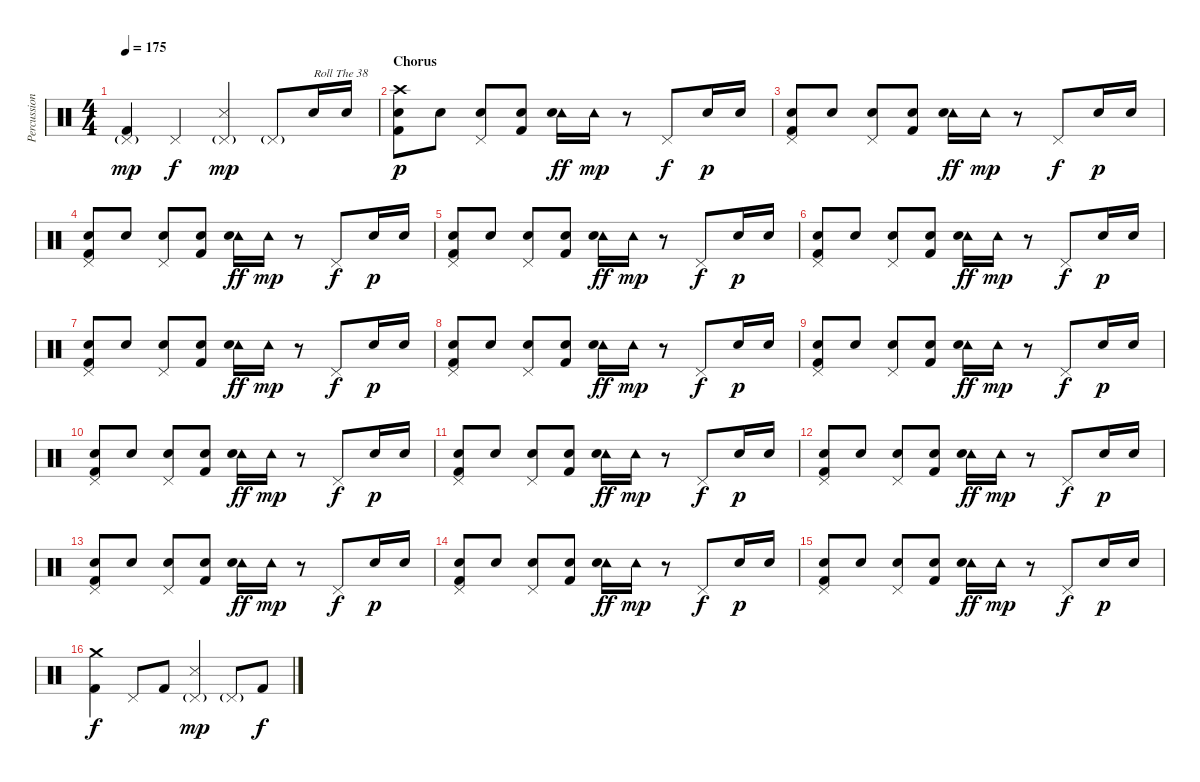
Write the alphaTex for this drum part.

\track ("Percussion" "Percussion") {instrument percussion}
\staff {score}
\articulation defaults
\ts (4 4)
\tempo 175
\clef neutral
\ks c
("Pedal Hi-Hat (hit)"{g} "Kick (hit) 2").4{dy mp} "Pedal Hi-Hat (hit)".4{dy f} ("Pedal Hi-Hat (hit)"{g} "Snare (side stick) 3").4{dy mp} "Pedal Hi-Hat (hit)"{g}.8 "Snare (hit) 2".16{txt "Roll The 38"} "Snare (hit) 2".16 |
\section ("" "Chorus")
("Crash high (hit)" "Snare (hit) 2" "Kick (hit) 2").8{dy p} "Snare (hit) 2".8 ("Pedal Hi-Hat (hit)" "Snare (hit) 2").8 ("Snare (hit) 2" "Kick (hit) 2").8 ("Tambourine (hit)" "Electric Snare (hit)").16{dy ff} "Tambourine (hit)".16{dy mp} r.8 "Pedal Hi-Hat (hit)".8{dy f} "Snare (hit) 2".16{dy p} "Snare (hit) 2".16 |
("Pedal Hi-Hat (hit)" "Snare (hit) 2" "Kick (hit) 2").8 "Snare (hit) 2".8 ("Pedal Hi-Hat (hit)" "Snare (hit) 2").8 ("Snare (hit) 2" "Kick (hit) 2").8 ("Tambourine (hit)" "Electric Snare (hit)").16{dy ff} "Tambourine (hit)".16{dy mp} r.8 "Pedal Hi-Hat (hit)".8{dy f} "Snare (hit) 2".16{dy p} "Snare (hit) 2".16 |
("Pedal Hi-Hat (hit)" "Snare (hit) 2" "Kick (hit) 2").8 "Snare (hit) 2".8 ("Pedal Hi-Hat (hit)" "Snare (hit) 2").8 ("Snare (hit) 2" "Kick (hit) 2").8 ("Tambourine (hit)" "Electric Snare (hit)").16{dy ff} "Tambourine (hit)".16{dy mp} r.8 "Pedal Hi-Hat (hit)".8{dy f} "Snare (hit) 2".16{dy p} "Snare (hit) 2".16 |
("Pedal Hi-Hat (hit)" "Snare (hit) 2" "Kick (hit) 2").8 "Snare (hit) 2".8 ("Pedal Hi-Hat (hit)" "Snare (hit) 2").8 ("Snare (hit) 2" "Kick (hit) 2").8 ("Tambourine (hit)" "Electric Snare (hit)").16{dy ff} "Tambourine (hit)".16{dy mp} r.8 "Pedal Hi-Hat (hit)".8{dy f} "Snare (hit) 2".16{dy p} "Snare (hit) 2".16 |
("Pedal Hi-Hat (hit)" "Snare (hit) 2" "Kick (hit) 2").8 "Snare (hit) 2".8 ("Pedal Hi-Hat (hit)" "Snare (hit) 2").8 ("Snare (hit) 2" "Kick (hit) 2").8 ("Tambourine (hit)" "Electric Snare (hit)").16{dy ff} "Tambourine (hit)".16{dy mp} r.8 "Pedal Hi-Hat (hit)".8{dy f} "Snare (hit) 2".16{dy p} "Snare (hit) 2".16 |
("Pedal Hi-Hat (hit)" "Snare (hit) 2" "Kick (hit) 2").8 "Snare (hit) 2".8 ("Pedal Hi-Hat (hit)" "Snare (hit) 2").8 ("Snare (hit) 2" "Kick (hit) 2").8 ("Tambourine (hit)" "Electric Snare (hit)").16{dy ff} "Tambourine (hit)".16{dy mp} r.8 "Pedal Hi-Hat (hit)".8{dy f} "Snare (hit) 2".16{dy p} "Snare (hit) 2".16 |
("Pedal Hi-Hat (hit)" "Snare (hit) 2" "Kick (hit) 2").8 "Snare (hit) 2".8 ("Pedal Hi-Hat (hit)" "Snare (hit) 2").8 ("Snare (hit) 2" "Kick (hit) 2").8 ("Tambourine (hit)" "Electric Snare (hit)").16{dy ff} "Tambourine (hit)".16{dy mp} r.8 "Pedal Hi-Hat (hit)".8{dy f} "Snare (hit) 2".16{dy p} "Snare (hit) 2".16 |
("Pedal Hi-Hat (hit)" "Snare (hit) 2" "Kick (hit) 2").8 "Snare (hit) 2".8 ("Pedal Hi-Hat (hit)" "Snare (hit) 2").8 ("Snare (hit) 2" "Kick (hit) 2").8 ("Tambourine (hit)" "Electric Snare (hit)").16{dy ff} "Tambourine (hit)".16{dy mp} r.8 "Pedal Hi-Hat (hit)".8{dy f} "Snare (hit) 2".16{dy p} "Snare (hit) 2".16 |
("Pedal Hi-Hat (hit)" "Snare (hit) 2" "Kick (hit) 2").8 "Snare (hit) 2".8 ("Pedal Hi-Hat (hit)" "Snare (hit) 2").8 ("Snare (hit) 2" "Kick (hit) 2").8 ("Tambourine (hit)" "Electric Snare (hit)").16{dy ff} "Tambourine (hit)".16{dy mp} r.8 "Pedal Hi-Hat (hit)".8{dy f} "Snare (hit) 2".16{dy p} "Snare (hit) 2".16 |
("Pedal Hi-Hat (hit)" "Snare (hit) 2" "Kick (hit) 2").8 "Snare (hit) 2".8 ("Pedal Hi-Hat (hit)" "Snare (hit) 2").8 ("Snare (hit) 2" "Kick (hit) 2").8 ("Tambourine (hit)" "Electric Snare (hit)").16{dy ff} "Tambourine (hit)".16{dy mp} r.8 "Pedal Hi-Hat (hit)".8{dy f} "Snare (hit) 2".16{dy p} "Snare (hit) 2".16 |
("Pedal Hi-Hat (hit)" "Snare (hit) 2" "Kick (hit) 2").8 "Snare (hit) 2".8 ("Pedal Hi-Hat (hit)" "Snare (hit) 2").8 ("Snare (hit) 2" "Kick (hit) 2").8 ("Tambourine (hit)" "Electric Snare (hit)").16{dy ff} "Tambourine (hit)".16{dy mp} r.8 "Pedal Hi-Hat (hit)".8{dy f} "Snare (hit) 2".16{dy p} "Snare (hit) 2".16 |
("Pedal Hi-Hat (hit)" "Snare (hit) 2" "Kick (hit) 2").8 "Snare (hit) 2".8 ("Pedal Hi-Hat (hit)" "Snare (hit) 2").8 ("Snare (hit) 2" "Kick (hit) 2").8 ("Tambourine (hit)" "Electric Snare (hit)").16{dy ff} "Tambourine (hit)".16{dy mp} r.8 "Pedal Hi-Hat (hit)".8{dy f} "Snare (hit) 2".16{dy p} "Snare (hit) 2".16 |
("Pedal Hi-Hat (hit)" "Snare (hit) 2" "Kick (hit) 2").8 "Snare (hit) 2".8 ("Pedal Hi-Hat (hit)" "Snare (hit) 2").8 ("Snare (hit) 2" "Kick (hit) 2").8 ("Tambourine (hit)" "Electric Snare (hit)").16{dy ff} "Tambourine (hit)".16{dy mp} r.8 "Pedal Hi-Hat (hit)".8{dy f} "Snare (hit) 2".16{dy p} "Snare (hit) 2".16 |
("Pedal Hi-Hat (hit)" "Snare (hit) 2" "Kick (hit) 2").8 "Snare (hit) 2".8 ("Pedal Hi-Hat (hit)" "Snare (hit) 2").8 ("Snare (hit) 2" "Kick (hit) 2").8 ("Tambourine (hit)" "Electric Snare (hit)").16{dy ff} "Tambourine (hit)".16{dy mp} r.8 "Pedal Hi-Hat (hit)".8{dy f} "Snare (hit) 2".16{dy p} "Snare (hit) 2".16 |
("Crash medium (hit)" "Kick (hit) 2").4{dy f} "Pedal Hi-Hat (hit)".8 "Kick (hit) 2".8 ("Pedal Hi-Hat (hit)"{g} "Snare (side stick) 3").4{dy mp} "Pedal Hi-Hat (hit)"{g}.8 "Kick (hit) 2".8{dy f}
